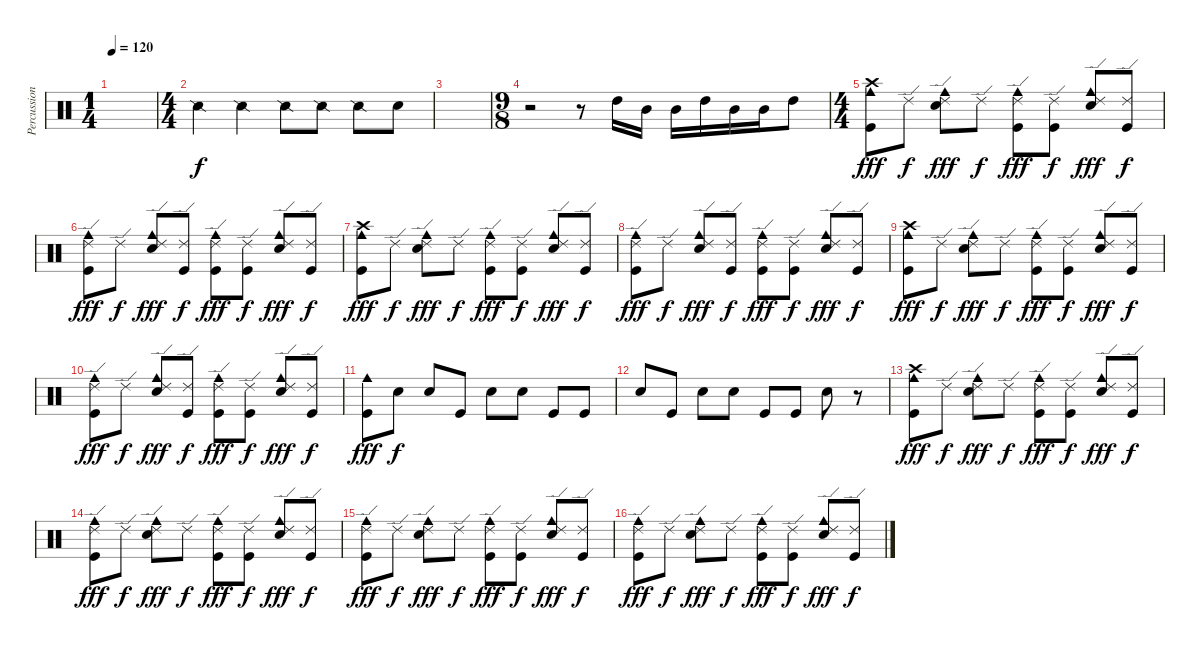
\track ("Percussion" "Percussion") {instrument percussion}
\staff {score}
\articulation defaults
\ts (1 4)
\tempo 120
\clef neutral
\ks c
|
\ts (4 4)
"Snare (side stick) 2".4 "Snare (side stick) 2".4 "Snare (side stick) 2".8 "Snare (side stick) 2".8 "Snare (side stick) 2".8 "Snare (hit)".8 |
|
\ts (9 8)
r.2 r.8 "High Tom (hit)".16 "Mid Tom (hit)".16 "Mid Tom (hit)".16 "High Tom (hit)".16 "Mid Tom (hit)".16 "Mid Tom (hit)".16 "High Tom (hit)".8 |
\ts (4 4)
("Crash high (hit)" "Cowbell medium (hit)" "Kick (hit)").8{dy fff} "Ride (edge) 2".8{dy f} ("Ride (edge) 2" "Cowbell medium (hit)" "Snare (hit) 2").8{dy fff} "Ride (edge) 2".8{dy f} ("Ride (edge) 2" "Cowbell medium (hit)" "Kick (hit)").8{dy fff} ("Ride (edge) 2" "Kick (hit)").8{dy f} ("Ride (edge) 2" "Cowbell medium (hit)" "Snare (hit) 2").8{dy fff} ("Ride (edge) 2" "Kick (hit)").8{dy f} |
("Ride (edge) 2" "Cowbell medium (hit)" "Kick (hit)").8{dy fff} "Ride (edge) 2".8{dy f} ("Ride (edge) 2" "Cowbell medium (hit)" "Snare (hit) 2").8{dy fff} ("Ride (edge) 2" "Kick (hit)").8{dy f} ("Ride (edge) 2" "Cowbell medium (hit)" "Kick (hit)").8{dy fff} ("Ride (edge) 2" "Kick (hit)").8{dy f} ("Ride (edge) 2" "Cowbell medium (hit)" "Snare (hit) 2").8{dy fff} ("Ride (edge) 2" "Kick (hit)").8{dy f} |
("Crash high (hit)" "Cowbell medium (hit)" "Kick (hit)").8{dy fff} "Ride (edge) 2".8{dy f} ("Ride (edge) 2" "Cowbell medium (hit)" "Snare (hit) 2").8{dy fff} "Ride (edge) 2".8{dy f} ("Ride (edge) 2" "Cowbell medium (hit)" "Kick (hit)").8{dy fff} ("Ride (edge) 2" "Kick (hit)").8{dy f} ("Ride (edge) 2" "Cowbell medium (hit)" "Snare (hit) 2").8{dy fff} ("Ride (edge) 2" "Kick (hit)").8{dy f} |
("Ride (edge) 2" "Cowbell medium (hit)" "Kick (hit)").8{dy fff} "Ride (edge) 2".8{dy f} ("Ride (edge) 2" "Cowbell medium (hit)" "Snare (hit) 2").8{dy fff} ("Ride (edge) 2" "Kick (hit)").8{dy f} ("Ride (edge) 2" "Cowbell medium (hit)" "Kick (hit)").8{dy fff} ("Ride (edge) 2" "Kick (hit)").8{dy f} ("Ride (edge) 2" "Cowbell medium (hit)" "Snare (hit) 2").8{dy fff} ("Ride (edge) 2" "Kick (hit)").8{dy f} |
("Crash high (hit)" "Cowbell medium (hit)" "Kick (hit)").8{dy fff} "Ride (edge) 2".8{dy f} ("Ride (edge) 2" "Cowbell medium (hit)" "Snare (hit) 2").8{dy fff} "Ride (edge) 2".8{dy f} ("Ride (edge) 2" "Cowbell medium (hit)" "Kick (hit)").8{dy fff} ("Ride (edge) 2" "Kick (hit)").8{dy f} ("Ride (edge) 2" "Cowbell medium (hit)" "Snare (hit) 2").8{dy fff} ("Ride (edge) 2" "Kick (hit)").8{dy f} |
("Ride (edge) 2" "Cowbell medium (hit)" "Kick (hit)").8{dy fff} "Ride (edge) 2".8{dy f} ("Ride (edge) 2" "Cowbell medium (hit)" "Snare (hit) 2").8{dy fff} ("Ride (edge) 2" "Kick (hit)").8{dy f} ("Ride (edge) 2" "Cowbell medium (hit)" "Kick (hit)").8{dy fff} ("Ride (edge) 2" "Kick (hit)").8{dy f} ("Ride (edge) 2" "Cowbell medium (hit)" "Snare (hit) 2").8{dy fff} ("Ride (edge) 2" "Kick (hit)").8{dy f} |
("Cowbell medium (hit)" "Kick (hit)").8{dy fff} "Snare (hit) 2".8{dy f} "Snare (hit) 2".8 "Kick (hit)".8 "Snare (hit) 2".8 "Snare (hit) 2".8 "Kick (hit)".8 "Kick (hit)".8 |
"Snare (hit) 2".8 "Kick (hit)".8 "Snare (hit) 2".8 "Snare (hit) 2".8 "Kick (hit)".8 "Kick (hit)".8 "Snare (hit) 2".8 r.8 |
("Crash high (hit)" "Cowbell medium (hit)" "Kick (hit)").8{dy fff} "Ride (edge) 2".8{dy f} ("Ride (edge) 2" "Cowbell medium (hit)" "Snare (hit) 2").8{dy fff} "Ride (edge) 2".8{dy f} ("Ride (edge) 2" "Cowbell medium (hit)" "Kick (hit)").8{dy fff} ("Ride (edge) 2" "Kick (hit)").8{dy f} ("Ride (edge) 2" "Cowbell medium (hit)" "Snare (hit) 2").8{dy fff} ("Ride (edge) 2" "Kick (hit)").8{dy f} |
("Ride (edge) 2" "Cowbell medium (hit)" "Kick (hit)").8{dy fff} "Ride (edge) 2".8{dy f} ("Ride (edge) 2" "Cowbell medium (hit)" "Snare (hit) 2").8{dy fff} "Ride (edge) 2".8{dy f} ("Ride (edge) 2" "Cowbell medium (hit)" "Kick (hit)").8{dy fff} ("Ride (edge) 2" "Kick (hit)").8{dy f} ("Ride (edge) 2" "Cowbell medium (hit)" "Snare (hit) 2").8{dy fff} ("Ride (edge) 2" "Kick (hit)").8{dy f} |
("Ride (edge) 2" "Cowbell medium (hit)" "Kick (hit)").8{dy fff} "Ride (edge) 2".8{dy f} ("Ride (edge) 2" "Cowbell medium (hit)" "Snare (hit) 2").8{dy fff} "Ride (edge) 2".8{dy f} ("Ride (edge) 2" "Cowbell medium (hit)" "Kick (hit)").8{dy fff} ("Ride (edge) 2" "Kick (hit)").8{dy f} ("Ride (edge) 2" "Cowbell medium (hit)" "Snare (hit) 2").8{dy fff} ("Ride (edge) 2" "Kick (hit)").8{dy f} |
("Ride (edge) 2" "Cowbell medium (hit)" "Kick (hit)").8{dy fff} "Ride (edge) 2".8{dy f} ("Ride (edge) 2" "Cowbell medium (hit)" "Snare (hit) 2").8{dy fff} "Ride (edge) 2".8{dy f} ("Ride (edge) 2" "Cowbell medium (hit)" "Kick (hit)").8{dy fff} ("Ride (edge) 2" "Kick (hit)").8{dy f} ("Ride (edge) 2" "Cowbell medium (hit)" "Snare (hit) 2").8{dy fff} ("Ride (edge) 2" "Kick (hit)").8{dy f}
